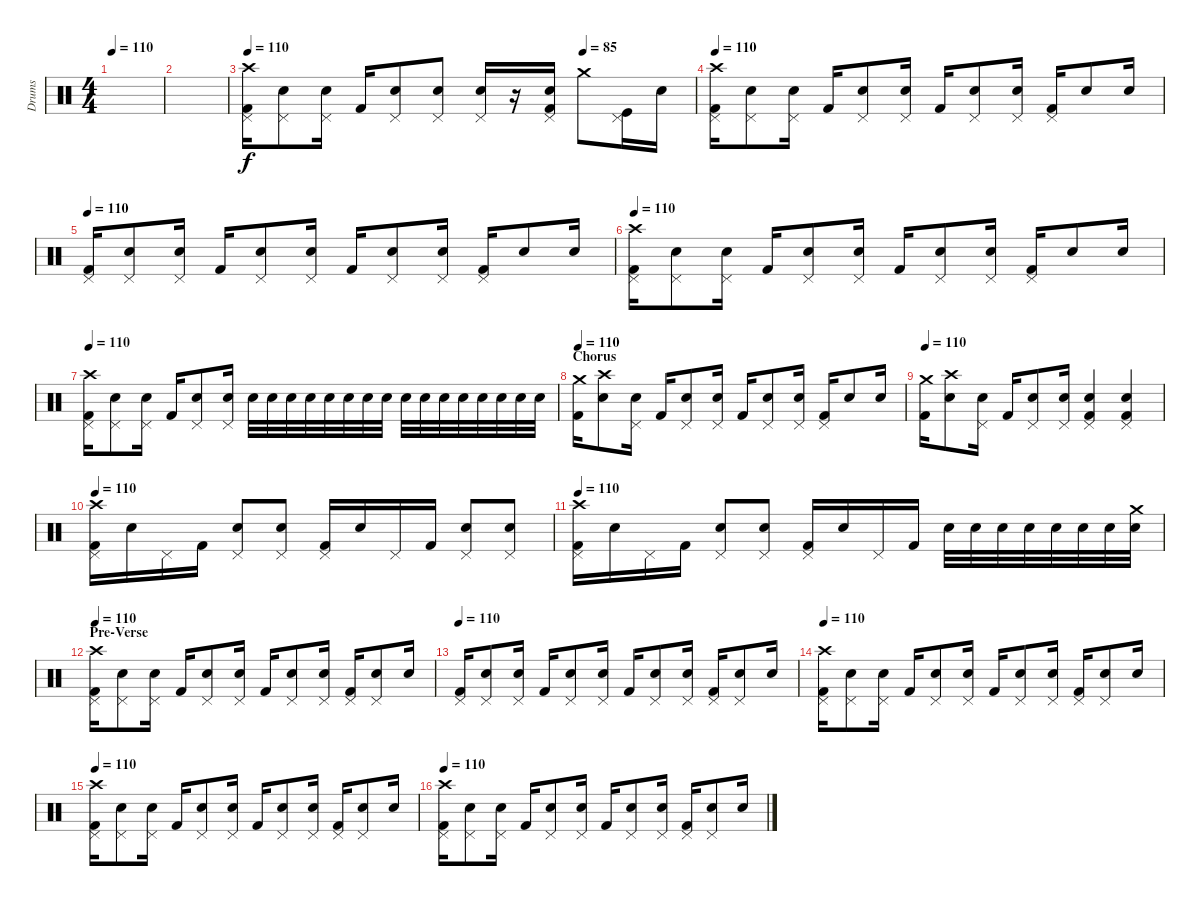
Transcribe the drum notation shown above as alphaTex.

\track ("Drums" "Drums") {instrument percussion}
\staff {score}
\articulation defaults
\ts (4 4)
\tempo 110
\clef neutral
\ks c
|
|
\tempo 110
\tempo (85 0.75)
("Crash high (hit)" "Kick (hit) 2" "Pedal Hi-Hat (hit)").16 ("Electric Snare (hit)" "Pedal Hi-Hat (hit)").8 ("Electric Snare (hit)" "Pedal Hi-Hat (hit)").16 "Kick (hit) 2".16 ("Electric Snare (hit)" "Pedal Hi-Hat (hit)").8 ("Electric Snare (hit)" "Pedal Hi-Hat (hit)").8 ("Electric Snare (hit)" "Pedal Hi-Hat (hit)").16 r.16 ("Electric Snare (hit)" "Kick (hit) 2" "Pedal Hi-Hat (hit)").16 "Crash medium (hit)".8 ("Kick (hit)" "Pedal Hi-Hat (hit)").16 "Electric Snare (hit)".16 |
\tempo 110
("Crash high (hit)" "Kick (hit) 2" "Pedal Hi-Hat (hit)").16{volume 13} ("Electric Snare (hit)" "Pedal Hi-Hat (hit)").8 ("Electric Snare (hit)" "Pedal Hi-Hat (hit)").16 "Kick (hit) 2".16 ("Electric Snare (hit)" "Pedal Hi-Hat (hit)").8 ("Electric Snare (hit)" "Pedal Hi-Hat (hit)").16 "Kick (hit) 2".16 ("Electric Snare (hit)" "Pedal Hi-Hat (hit)").8 ("Electric Snare (hit)" "Pedal Hi-Hat (hit)").16 ("Kick (hit) 2" "Pedal Hi-Hat (hit)").16 "Electric Snare (hit)".8 "Electric Snare (hit)".16 |
\tempo 110
("Kick (hit) 2" "Pedal Hi-Hat (hit)").16{volume 13} ("Electric Snare (hit)" "Pedal Hi-Hat (hit)").8 ("Electric Snare (hit)" "Pedal Hi-Hat (hit)").16 "Kick (hit) 2".16 ("Electric Snare (hit)" "Pedal Hi-Hat (hit)").8 ("Electric Snare (hit)" "Pedal Hi-Hat (hit)").16 "Kick (hit) 2".16 ("Electric Snare (hit)" "Pedal Hi-Hat (hit)").8 ("Electric Snare (hit)" "Pedal Hi-Hat (hit)").16 ("Kick (hit) 2" "Pedal Hi-Hat (hit)").16 "Electric Snare (hit)".8 "Electric Snare (hit)".16 |
\tempo 110
("Crash high (hit)" "Kick (hit) 2" "Pedal Hi-Hat (hit)").16{volume 13} ("Electric Snare (hit)" "Pedal Hi-Hat (hit)").8 ("Electric Snare (hit)" "Pedal Hi-Hat (hit)").16 "Kick (hit) 2".16 ("Electric Snare (hit)" "Pedal Hi-Hat (hit)").8 ("Electric Snare (hit)" "Pedal Hi-Hat (hit)").16 "Kick (hit) 2".16 ("Electric Snare (hit)" "Pedal Hi-Hat (hit)").8 ("Electric Snare (hit)" "Pedal Hi-Hat (hit)").16 ("Kick (hit) 2" "Pedal Hi-Hat (hit)").16 "Electric Snare (hit)".8 "Electric Snare (hit)".16 |
\tempo 110
("Crash high (hit)" "Kick (hit) 2" "Pedal Hi-Hat (hit)").16{volume 13} ("Electric Snare (hit)" "Pedal Hi-Hat (hit)").8 ("Electric Snare (hit)" "Pedal Hi-Hat (hit)").16 "Kick (hit) 2".16 ("Electric Snare (hit)" "Pedal Hi-Hat (hit)").8 ("Electric Snare (hit)" "Pedal Hi-Hat (hit)").16 "Electric Snare (hit)".32 "Electric Snare (hit)".32{volume 8} "Electric Snare (hit)".32 "Electric Snare (hit)".32 "Electric Snare (hit)".32{volume 13} "Electric Snare (hit)".32{volume 8} "Electric Snare (hit)".32 "Electric Snare (hit)".32 "Electric Snare (hit)".32{volume 13} "Electric Snare (hit)".32{volume 8} "Electric Snare (hit)".32 "Electric Snare (hit)".32 "Electric Snare (hit)".32{volume 13} "Electric Snare (hit)".32{volume 8} "Electric Snare (hit)".32 "Electric Snare (hit)".32 |
\section ("" "Chorus")
\tempo 110
("Kick (hit) 2" "Crash medium (hit)").16{volume 13} ("Electric Snare (hit)" "Crash high (hit)").8 ("Electric Snare (hit)" "Pedal Hi-Hat (hit)").16 "Kick (hit) 2".16 ("Electric Snare (hit)" "Pedal Hi-Hat (hit)").8 ("Electric Snare (hit)" "Pedal Hi-Hat (hit)").16 "Kick (hit) 2".16 ("Electric Snare (hit)" "Pedal Hi-Hat (hit)").8 ("Electric Snare (hit)" "Pedal Hi-Hat (hit)").16 ("Kick (hit) 2" "Pedal Hi-Hat (hit)").16 "Electric Snare (hit)".8 "Electric Snare (hit)".16 |
\tempo 110
("Kick (hit) 2" "Crash medium (hit)").16{volume 13} ("Electric Snare (hit)" "Crash high (hit)").8 ("Electric Snare (hit)" "Pedal Hi-Hat (hit)").16 "Kick (hit) 2".16 ("Electric Snare (hit)" "Pedal Hi-Hat (hit)").8 ("Electric Snare (hit)" "Pedal Hi-Hat (hit)").16 ("Electric Snare (hit)" "Kick (hit) 2" "Pedal Hi-Hat (hit)").4 ("Electric Snare (hit)" "Kick (hit) 2" "Pedal Hi-Hat (hit)").4 |
\tempo 110
("Crash high (hit)" "Kick (hit) 2" "Pedal Hi-Hat (hit)").16{volume 13} "Electric Snare (hit)".16 "Pedal Hi-Hat (hit)".16 "Kick (hit) 2".16 ("Electric Snare (hit)" "Pedal Hi-Hat (hit)").8 ("Electric Snare (hit)" "Pedal Hi-Hat (hit)").8 ("Kick (hit) 2" "Pedal Hi-Hat (hit)").16 "Electric Snare (hit)".16 "Pedal Hi-Hat (hit)".16 "Kick (hit) 2".16 ("Electric Snare (hit)" "Pedal Hi-Hat (hit)").8 ("Electric Snare (hit)" "Pedal Hi-Hat (hit)").8 |
\tempo 110
("Crash high (hit)" "Kick (hit) 2" "Pedal Hi-Hat (hit)").16{volume 13} "Electric Snare (hit)".16 "Pedal Hi-Hat (hit)".16 "Kick (hit) 2".16 ("Electric Snare (hit)" "Pedal Hi-Hat (hit)").8 ("Electric Snare (hit)" "Pedal Hi-Hat (hit)").8 ("Kick (hit) 2" "Pedal Hi-Hat (hit)").16 "Electric Snare (hit)".16 "Pedal Hi-Hat (hit)".16 "Kick (hit) 2".16 "Electric Snare (hit)".32 "Electric Snare (hit)".32 "Electric Snare (hit)".32 "Electric Snare (hit)".32 "Electric Snare (hit)".32 "Electric Snare (hit)".32 "Electric Snare (hit)".32 ("Crash medium (hit)" "Electric Snare (hit)").32 |
\section ("" "Pre-Verse")
\tempo 110
("Crash high (hit)" "Kick (hit) 2" "Pedal Hi-Hat (hit)").16{volume 13} ("Electric Snare (hit)" "Pedal Hi-Hat (hit)").8 ("Electric Snare (hit)" "Pedal Hi-Hat (hit)").16 "Kick (hit) 2".16 ("Electric Snare (hit)" "Pedal Hi-Hat (hit)").8 ("Electric Snare (hit)" "Pedal Hi-Hat (hit)").16 "Kick (hit) 2".16 ("Electric Snare (hit)" "Pedal Hi-Hat (hit)").8 ("Electric Snare (hit)" "Pedal Hi-Hat (hit)").16 ("Kick (hit) 2" "Pedal Hi-Hat (hit)").16 ("Electric Snare (hit)" "Pedal Hi-Hat (hit)").8 "Electric Snare (hit)".16 |
\tempo 110
("Kick (hit) 2" "Pedal Hi-Hat (hit)").16{volume 13} ("Electric Snare (hit)" "Pedal Hi-Hat (hit)").8 ("Electric Snare (hit)" "Pedal Hi-Hat (hit)").16 "Kick (hit) 2".16 ("Electric Snare (hit)" "Pedal Hi-Hat (hit)").8 ("Electric Snare (hit)" "Pedal Hi-Hat (hit)").16 "Kick (hit) 2".16 ("Electric Snare (hit)" "Pedal Hi-Hat (hit)").8 ("Electric Snare (hit)" "Pedal Hi-Hat (hit)").16 ("Kick (hit) 2" "Pedal Hi-Hat (hit)").16 ("Electric Snare (hit)" "Pedal Hi-Hat (hit)").8 "Electric Snare (hit)".16 |
\tempo 110
("Crash high (hit)" "Kick (hit) 2" "Pedal Hi-Hat (hit)").16{volume 13} ("Electric Snare (hit)" "Pedal Hi-Hat (hit)").8 ("Electric Snare (hit)" "Pedal Hi-Hat (hit)").16 "Kick (hit) 2".16 ("Electric Snare (hit)" "Pedal Hi-Hat (hit)").8 ("Electric Snare (hit)" "Pedal Hi-Hat (hit)").16 "Kick (hit) 2".16 ("Electric Snare (hit)" "Pedal Hi-Hat (hit)").8 ("Electric Snare (hit)" "Pedal Hi-Hat (hit)").16 ("Kick (hit) 2" "Pedal Hi-Hat (hit)").16 ("Electric Snare (hit)" "Pedal Hi-Hat (hit)").8 "Electric Snare (hit)".16 |
\tempo 110
("Crash high (hit)" "Kick (hit) 2" "Pedal Hi-Hat (hit)").16{volume 13} ("Electric Snare (hit)" "Pedal Hi-Hat (hit)").8 ("Electric Snare (hit)" "Pedal Hi-Hat (hit)").16 "Kick (hit) 2".16 ("Electric Snare (hit)" "Pedal Hi-Hat (hit)").8 ("Electric Snare (hit)" "Pedal Hi-Hat (hit)").16 "Kick (hit) 2".16 ("Electric Snare (hit)" "Pedal Hi-Hat (hit)").8 ("Electric Snare (hit)" "Pedal Hi-Hat (hit)").16 ("Kick (hit) 2" "Pedal Hi-Hat (hit)").16 ("Electric Snare (hit)" "Pedal Hi-Hat (hit)").8 "Electric Snare (hit)".16 |
\tempo 110
("Crash high (hit)" "Kick (hit) 2" "Pedal Hi-Hat (hit)").16{volume 13} ("Electric Snare (hit)" "Pedal Hi-Hat (hit)").8 ("Electric Snare (hit)" "Pedal Hi-Hat (hit)").16 "Kick (hit) 2".16 ("Electric Snare (hit)" "Pedal Hi-Hat (hit)").8 ("Electric Snare (hit)" "Pedal Hi-Hat (hit)").16 "Kick (hit) 2".16 ("Electric Snare (hit)" "Pedal Hi-Hat (hit)").8 ("Electric Snare (hit)" "Pedal Hi-Hat (hit)").16 ("Kick (hit) 2" "Pedal Hi-Hat (hit)").16 ("Electric Snare (hit)" "Pedal Hi-Hat (hit)").8 "Electric Snare (hit)".16
